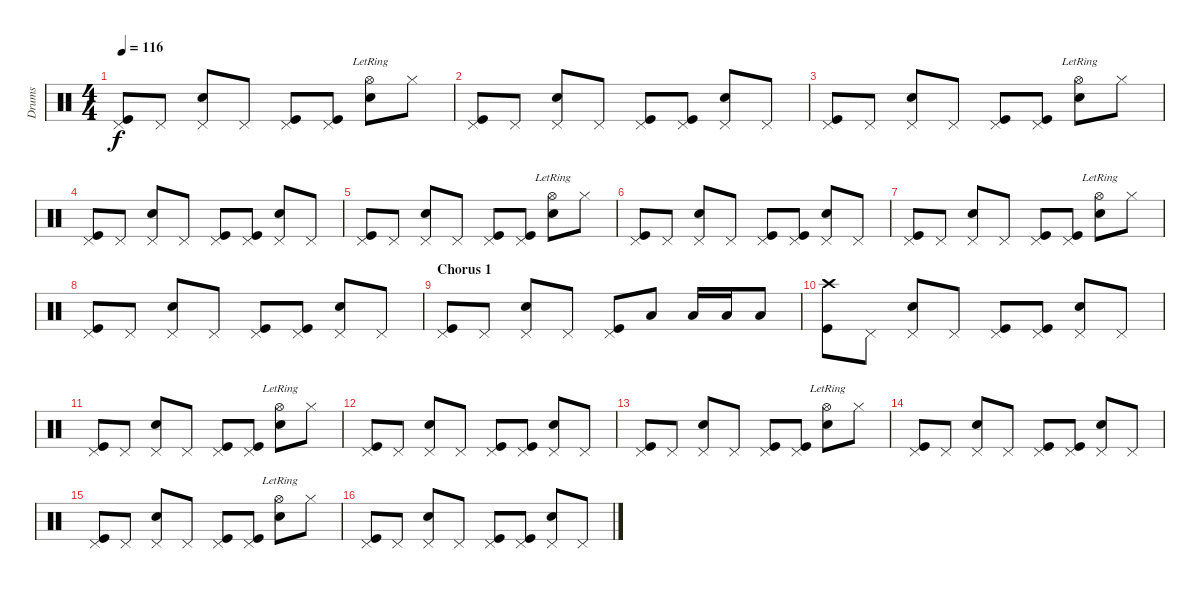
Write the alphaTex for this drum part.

\track ("Drums" "Drums") {instrument percussion}
\staff {score}
\articulation defaults
\ts (4 4)
\tempo 116
\clef neutral
\ks c
("Pedal Hi-Hat (hit)" "Kick (hit)").8{dy f} "Pedal Hi-Hat (hit)".8 ("Pedal Hi-Hat (hit)" "Snare (hit) 2").8 "Pedal Hi-Hat (hit)".8 ("Pedal Hi-Hat (hit)" "Kick (hit)").8 ("Pedal Hi-Hat (hit)" "Kick (hit)").8 ("Hi-Hat (open)"{lr} "Snare (hit) 2").8 "Hi-Hat (closed)".8 |
("Pedal Hi-Hat (hit)" "Kick (hit)").8 "Pedal Hi-Hat (hit)".8 ("Pedal Hi-Hat (hit)" "Snare (hit) 2").8 "Pedal Hi-Hat (hit)".8 ("Pedal Hi-Hat (hit)" "Kick (hit)").8 ("Pedal Hi-Hat (hit)" "Kick (hit)").8 ("Pedal Hi-Hat (hit)" "Snare (hit) 2").8 "Pedal Hi-Hat (hit)".8 |
("Pedal Hi-Hat (hit)" "Kick (hit)").8 "Pedal Hi-Hat (hit)".8 ("Pedal Hi-Hat (hit)" "Snare (hit) 2").8 "Pedal Hi-Hat (hit)".8 ("Pedal Hi-Hat (hit)" "Kick (hit)").8 ("Pedal Hi-Hat (hit)" "Kick (hit)").8 ("Hi-Hat (open)"{lr} "Snare (hit) 2").8 "Hi-Hat (closed)".8 |
("Pedal Hi-Hat (hit)" "Kick (hit)").8 "Pedal Hi-Hat (hit)".8 ("Pedal Hi-Hat (hit)" "Snare (hit) 2").8 "Pedal Hi-Hat (hit)".8 ("Pedal Hi-Hat (hit)" "Kick (hit)").8 ("Pedal Hi-Hat (hit)" "Kick (hit)").8 ("Pedal Hi-Hat (hit)" "Snare (hit) 2").8 "Pedal Hi-Hat (hit)".8 |
("Pedal Hi-Hat (hit)" "Kick (hit)").8 "Pedal Hi-Hat (hit)".8 ("Pedal Hi-Hat (hit)" "Snare (hit) 2").8 "Pedal Hi-Hat (hit)".8 ("Pedal Hi-Hat (hit)" "Kick (hit)").8 ("Pedal Hi-Hat (hit)" "Kick (hit)").8 ("Hi-Hat (open)"{lr} "Snare (hit) 2").8 "Hi-Hat (closed)".8 |
("Pedal Hi-Hat (hit)" "Kick (hit)").8 "Pedal Hi-Hat (hit)".8 ("Pedal Hi-Hat (hit)" "Snare (hit) 2").8 "Pedal Hi-Hat (hit)".8 ("Pedal Hi-Hat (hit)" "Kick (hit)").8 ("Pedal Hi-Hat (hit)" "Kick (hit)").8 ("Pedal Hi-Hat (hit)" "Snare (hit) 2").8 "Pedal Hi-Hat (hit)".8 |
("Pedal Hi-Hat (hit)" "Kick (hit)").8 "Pedal Hi-Hat (hit)".8 ("Pedal Hi-Hat (hit)" "Snare (hit) 2").8 "Pedal Hi-Hat (hit)".8 ("Pedal Hi-Hat (hit)" "Kick (hit)").8 ("Pedal Hi-Hat (hit)" "Kick (hit)").8 ("Hi-Hat (open)"{lr} "Snare (hit) 2").8 "Hi-Hat (closed)".8 |
("Pedal Hi-Hat (hit)" "Kick (hit)").8 "Pedal Hi-Hat (hit)".8 ("Pedal Hi-Hat (hit)" "Snare (hit) 2").8 "Pedal Hi-Hat (hit)".8 ("Pedal Hi-Hat (hit)" "Kick (hit)").8 ("Pedal Hi-Hat (hit)" "Kick (hit)").8 ("Pedal Hi-Hat (hit)" "Snare (hit) 2").8 "Pedal Hi-Hat (hit)".8 |
\section ("" "Chorus 1")
("Pedal Hi-Hat (hit)" "Kick (hit)").8 "Pedal Hi-Hat (hit)".8 ("Pedal Hi-Hat (hit)" "Snare (hit) 2").8 "Pedal Hi-Hat (hit)".8 ("Pedal Hi-Hat (hit)" "Kick (hit)").8 "Low Tom (hit)".8 "Low Tom (hit)".16 "Low Tom (hit)".16 "Low Tom (hit)".8 |
("Crash high (hit)" "Kick (hit)").8 "Pedal Hi-Hat (hit)".8 ("Pedal Hi-Hat (hit)" "Snare (hit) 2").8 "Pedal Hi-Hat (hit)".8 ("Pedal Hi-Hat (hit)" "Kick (hit)").8 ("Pedal Hi-Hat (hit)" "Kick (hit)").8 ("Pedal Hi-Hat (hit)" "Snare (hit) 2").8 "Pedal Hi-Hat (hit)".8 |
("Pedal Hi-Hat (hit)" "Kick (hit)").8 "Pedal Hi-Hat (hit)".8 ("Pedal Hi-Hat (hit)" "Snare (hit) 2").8 "Pedal Hi-Hat (hit)".8 ("Pedal Hi-Hat (hit)" "Kick (hit)").8 ("Pedal Hi-Hat (hit)" "Kick (hit)").8 ("Hi-Hat (open)"{lr} "Snare (hit) 2").8 "Hi-Hat (closed)".8 |
("Pedal Hi-Hat (hit)" "Kick (hit)").8 "Pedal Hi-Hat (hit)".8 ("Pedal Hi-Hat (hit)" "Snare (hit) 2").8 "Pedal Hi-Hat (hit)".8 ("Pedal Hi-Hat (hit)" "Kick (hit)").8 ("Pedal Hi-Hat (hit)" "Kick (hit)").8 ("Pedal Hi-Hat (hit)" "Snare (hit) 2").8 "Pedal Hi-Hat (hit)".8 |
("Pedal Hi-Hat (hit)" "Kick (hit)").8 "Pedal Hi-Hat (hit)".8 ("Pedal Hi-Hat (hit)" "Snare (hit) 2").8 "Pedal Hi-Hat (hit)".8 ("Pedal Hi-Hat (hit)" "Kick (hit)").8 ("Pedal Hi-Hat (hit)" "Kick (hit)").8 ("Hi-Hat (open)"{lr} "Snare (hit) 2").8 "Hi-Hat (closed)".8 |
("Pedal Hi-Hat (hit)" "Kick (hit)").8 "Pedal Hi-Hat (hit)".8 ("Pedal Hi-Hat (hit)" "Snare (hit) 2").8 "Pedal Hi-Hat (hit)".8 ("Pedal Hi-Hat (hit)" "Kick (hit)").8 ("Pedal Hi-Hat (hit)" "Kick (hit)").8 ("Pedal Hi-Hat (hit)" "Snare (hit) 2").8 "Pedal Hi-Hat (hit)".8 |
("Pedal Hi-Hat (hit)" "Kick (hit)").8 "Pedal Hi-Hat (hit)".8 ("Pedal Hi-Hat (hit)" "Snare (hit) 2").8 "Pedal Hi-Hat (hit)".8 ("Pedal Hi-Hat (hit)" "Kick (hit)").8 ("Pedal Hi-Hat (hit)" "Kick (hit)").8 ("Hi-Hat (open)"{lr} "Snare (hit) 2").8 "Hi-Hat (closed)".8 |
("Pedal Hi-Hat (hit)" "Kick (hit)").8 "Pedal Hi-Hat (hit)".8 ("Pedal Hi-Hat (hit)" "Snare (hit) 2").8 "Pedal Hi-Hat (hit)".8 ("Pedal Hi-Hat (hit)" "Kick (hit)").8 ("Pedal Hi-Hat (hit)" "Kick (hit)").8 ("Pedal Hi-Hat (hit)" "Snare (hit) 2").8 "Pedal Hi-Hat (hit)".8
